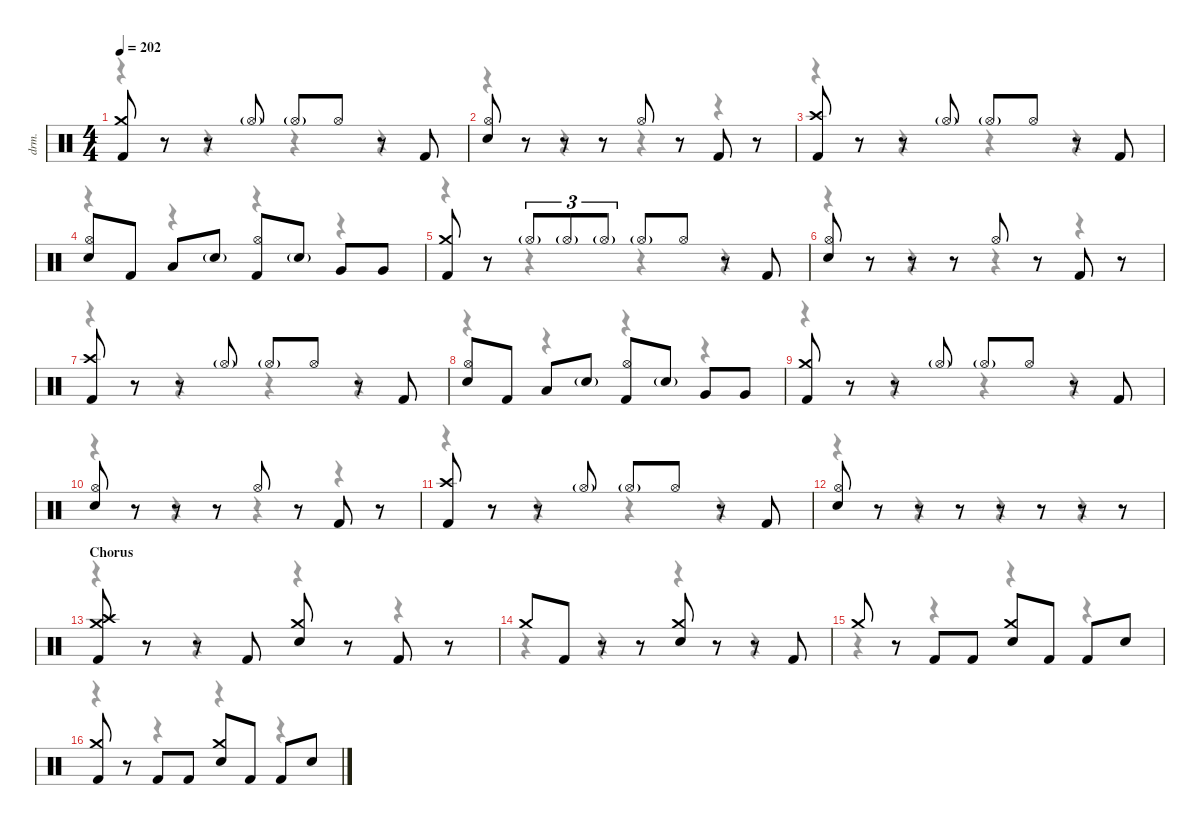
\defaultSystemsLayout 4
\hideDynamics
\bracketExtendMode nobrackets
\track ("Alex Ballew" "drm.") {instrument percussion}
\staff {score}
\articulation defaults
\voice
\ts (4 4)
\tempo 202
\clef neutral
\ks c
("Crash medium (hit)" "Kick (hit) 2").8{dy f beam Up} r.8{beam Up} r.8{beam Up} "Hi-Hat (open)"{g}.8{dy mf beam Up} "Hi-Hat (open)"{g}.8{dy f beam Up} "Hi-Hat (open)".8{beam Up} r.8{beam Up} "Kick (hit) 2".8{beam Up} |
("Hi-Hat (open)" "Snare (hit) 2").8{beam Up} r.8{beam Up} r.8{beam Up} r.8{beam Up} "Hi-Hat (open)".8{beam Up} r.8{beam Up} "Kick (hit) 2".8{beam Up} r.8{beam Up} |
("Crash high (hit)" "Kick (hit) 2").8{beam Up} r.8{beam Up} r.8{beam Up} "Hi-Hat (open)"{g}.8{dy mf beam Up} "Hi-Hat (open)"{g}.8{dy f beam Up} "Hi-Hat (open)".8{beam Up} r.8{beam Up} "Kick (hit) 2".8{beam Up} |
("Hi-Hat (open)" "Snare (hit) 2").8{beam Up} "Kick (hit) 2".8{beam Up} "Low Tom (hit)".8{beam Up} "Snare (hit) 2"{g}.8{beam Up} ("Hi-Hat (open)" "Kick (hit) 2").8{beam Up} "Snare (hit) 2"{g}.8{beam Up} "Very Low Tom (hit)".8{beam Up} "Very Low Tom (hit)".8{beam Up} |
("Crash medium (hit)" "Kick (hit) 2").8{beam Up} r.8{beam Up} "Hi-Hat (open)"{g}.8{tu (3 2) dy mf beam Up} "Hi-Hat (open)"{g}.8{tu (3 2) beam Up} "Hi-Hat (open)"{g}.8{tu (3 2) beam Up} "Hi-Hat (open)"{g}.8{dy f beam Up} "Hi-Hat (open)".8{beam Up} r.8{beam Up} "Kick (hit) 2".8{beam Up} |
("Hi-Hat (open)" "Snare (hit) 2").8{beam Up} r.8{beam Up} r.8{beam Up} r.8{beam Up} "Hi-Hat (open)".8{beam Up} r.8{beam Up} "Kick (hit) 2".8{beam Up} r.8{beam Up} |
("Crash high (hit)" "Kick (hit) 2").8{beam Up} r.8{beam Up} r.8{beam Up} "Hi-Hat (open)"{g}.8{dy mf beam Up} "Hi-Hat (open)"{g}.8{dy f beam Up} "Hi-Hat (open)".8{beam Up} r.8{beam Up} "Kick (hit) 2".8{beam Up} |
("Hi-Hat (open)" "Snare (hit) 2").8{beam Up} "Kick (hit) 2".8{beam Up} "Low Tom (hit)".8{beam Up} "Snare (hit) 2"{g}.8{beam Up} ("Hi-Hat (open)" "Kick (hit) 2").8{beam Up} "Snare (hit) 2"{g}.8{beam Up} "Very Low Tom (hit)".8{beam Up} "Very Low Tom (hit)".8{beam Up} |
("Crash medium (hit)" "Kick (hit) 2").8{beam Up} r.8{beam Up} r.8{beam Up} "Hi-Hat (open)"{g}.8{dy mf beam Up} "Hi-Hat (open)"{g}.8{dy f beam Up} "Hi-Hat (open)".8{beam Up} r.8{beam Up} "Kick (hit) 2".8{beam Up} |
("Hi-Hat (open)" "Snare (hit) 2").8{beam Up} r.8{beam Up} r.8{beam Up} r.8{beam Up} "Hi-Hat (open)".8{beam Up} r.8{beam Up} "Kick (hit) 2".8{beam Up} r.8{beam Up} |
("Crash high (hit)" "Kick (hit) 2").8{beam Up} r.8{beam Up} r.8{beam Up} "Hi-Hat (open)"{g}.8{dy mf beam Up} "Hi-Hat (open)"{g}.8{dy f beam Up} "Hi-Hat (open)".8{beam Up} r.8{beam Up} "Kick (hit) 2".8{beam Up} |
("Hi-Hat (open)" "Snare (hit) 2").8{beam Up} r.8{beam Up} r.8{beam Up} r.8{beam Up} r.8{beam Up} r.8{beam Up} r.8{beam Up} r.8{beam Up} |
\section ("" "Chorus")
("Crash medium (hit)" "Crash high (hit)" "Kick (hit) 2").8{beam Up} r.8{beam Up} r.8{beam Up} "Kick (hit) 2".8{beam Up} ("Crash medium (hit)" "Snare (hit) 2").8{beam Up} r.8{beam Up} "Kick (hit) 2".8{beam Up} r.8{beam Up} |
"Crash medium (hit)".8{beam Up} "Kick (hit) 2".8{beam Up} r.8{beam Up} r.8{beam Up} ("Crash medium (hit)" "Snare (hit) 2").8{beam Up} r.8{beam Up} r.8{beam Up} "Kick (hit) 2".8{beam Up} |
"Crash medium (hit)".8{beam Up} r.8{beam Up} "Kick (hit) 2".8{beam Up} "Kick (hit) 2".8{beam Up} ("Crash medium (hit)" "Snare (hit) 2").8{beam Up} "Kick (hit) 2".8{beam Up} "Kick (hit) 2".8{beam Up} "Snare (hit) 2".8{beam Up} |
("Crash medium (hit)" "Kick (hit) 2").8{beam Up} r.8{beam Up} "Kick (hit) 2".8{beam Up} "Kick (hit) 2".8{beam Up} ("Crash medium (hit)" "Snare (hit) 2").8{beam Up} "Kick (hit) 2".8{beam Up} "Kick (hit) 2".8{beam Up} "Snare (hit) 2".8{beam Up}
\voice
\clef neutral
\ottava regular
\simile none
\ks c
r.4{dy mf beam Down} r.4{beam Down} r.4{beam Down} r.4{beam Down} |
r.4{beam Down} r.4{beam Down} r.4{beam Down} r.4{beam Down} |
r.4{beam Down} r.4{beam Down} r.4{beam Down} r.4{beam Down} |
r.4{beam Down} r.4{beam Down} r.4{beam Down} r.4{beam Down} |
r.4{beam Down} r.4{beam Down} r.4{beam Down} r.4{beam Down} |
r.4{beam Down} r.4{beam Down} r.4{beam Down} r.4{beam Down} |
r.4{beam Down} r.4{beam Down} r.4{beam Down} r.4{beam Down} |
r.4{beam Down} r.4{beam Down} r.4{beam Down} r.4{beam Down} |
r.4{beam Down} r.4{beam Down} r.4{beam Down} r.4{beam Down} |
r.4{beam Down} r.4{beam Down} r.4{beam Down} r.4{beam Down} |
r.4{beam Down} r.4{beam Down} r.4{beam Down} r.4{beam Down} |
r.4{beam Down} r.4{beam Down} r.4{beam Down} r.4{beam Down} |
r.4{beam Down} r.4{beam Down} r.4{beam Down} r.4{beam Down} |
r.4{beam Down} r.4{beam Down} r.4{beam Down} r.4{beam Down} |
r.4{beam Down} r.4{beam Down} r.4{beam Down} r.4{beam Down} |
r.4{beam Down} r.4{beam Down} r.4{beam Down} r.4{beam Down}
